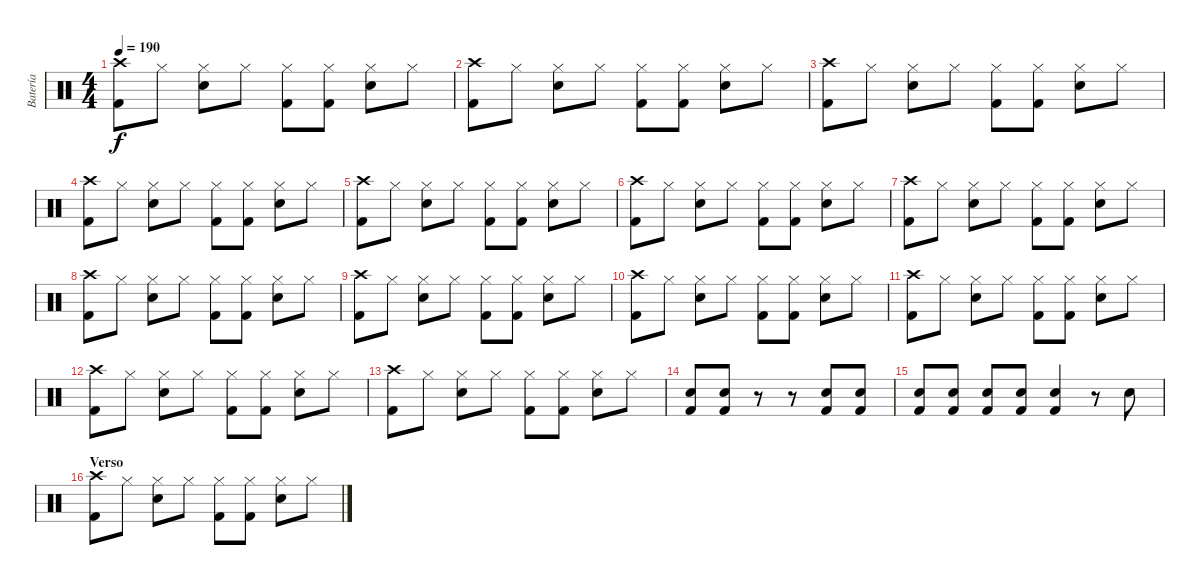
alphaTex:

\track ("Batería" "Batería") {instrument percussion}
\staff {score}
\articulation defaults
\ts (4 4)
\tempo 190
\clef neutral
\ks c
("Crash high (hit)" "Kick (hit) 2").8{dy f} "Hi-Hat (closed)".8 ("Hi-Hat (closed)" "Snare (hit) 2").8 "Hi-Hat (closed)".8 ("Hi-Hat (closed)" "Kick (hit) 2").8 ("Hi-Hat (closed)" "Kick (hit) 2").8 ("Hi-Hat (closed)" "Snare (hit) 2").8 "Hi-Hat (closed)".8 |
("Crash high (hit)" "Kick (hit) 2").8 "Hi-Hat (closed)".8 ("Hi-Hat (closed)" "Snare (hit) 2").8 "Hi-Hat (closed)".8 ("Hi-Hat (closed)" "Kick (hit) 2").8 ("Hi-Hat (closed)" "Kick (hit) 2").8 ("Hi-Hat (closed)" "Snare (hit) 2").8 "Hi-Hat (closed)".8 |
("Crash high (hit)" "Kick (hit) 2").8 "Hi-Hat (closed)".8 ("Hi-Hat (closed)" "Snare (hit) 2").8 "Hi-Hat (closed)".8 ("Hi-Hat (closed)" "Kick (hit) 2").8 ("Hi-Hat (closed)" "Kick (hit) 2").8 ("Hi-Hat (closed)" "Snare (hit) 2").8 "Hi-Hat (closed)".8 |
("Crash high (hit)" "Kick (hit) 2").8 "Hi-Hat (closed)".8 ("Hi-Hat (closed)" "Snare (hit) 2").8 "Hi-Hat (closed)".8 ("Hi-Hat (closed)" "Kick (hit) 2").8 ("Hi-Hat (closed)" "Kick (hit) 2").8 ("Hi-Hat (closed)" "Snare (hit) 2").8 "Hi-Hat (closed)".8 |
("Crash high (hit)" "Kick (hit) 2").8 "Hi-Hat (closed)".8 ("Hi-Hat (closed)" "Snare (hit) 2").8 "Hi-Hat (closed)".8 ("Hi-Hat (closed)" "Kick (hit) 2").8 ("Hi-Hat (closed)" "Kick (hit) 2").8 ("Hi-Hat (closed)" "Snare (hit) 2").8 "Hi-Hat (closed)".8 |
("Crash high (hit)" "Kick (hit) 2").8 "Hi-Hat (closed)".8 ("Hi-Hat (closed)" "Snare (hit) 2").8 "Hi-Hat (closed)".8 ("Hi-Hat (closed)" "Kick (hit) 2").8 ("Hi-Hat (closed)" "Kick (hit) 2").8 ("Hi-Hat (closed)" "Snare (hit) 2").8 "Hi-Hat (closed)".8 |
("Crash high (hit)" "Kick (hit) 2").8 "Hi-Hat (closed)".8 ("Hi-Hat (closed)" "Snare (hit) 2").8 "Hi-Hat (closed)".8 ("Hi-Hat (closed)" "Kick (hit) 2").8 ("Hi-Hat (closed)" "Kick (hit) 2").8 ("Hi-Hat (closed)" "Snare (hit) 2").8 "Hi-Hat (closed)".8 |
("Crash high (hit)" "Kick (hit) 2").8 "Hi-Hat (closed)".8 ("Hi-Hat (closed)" "Snare (hit) 2").8 "Hi-Hat (closed)".8 ("Hi-Hat (closed)" "Kick (hit) 2").8 ("Hi-Hat (closed)" "Kick (hit) 2").8 ("Hi-Hat (closed)" "Snare (hit) 2").8 "Hi-Hat (closed)".8 |
("Crash high (hit)" "Kick (hit) 2").8 "Hi-Hat (closed)".8 ("Hi-Hat (closed)" "Snare (hit) 2").8 "Hi-Hat (closed)".8 ("Hi-Hat (closed)" "Kick (hit) 2").8 ("Hi-Hat (closed)" "Kick (hit) 2").8 ("Hi-Hat (closed)" "Snare (hit) 2").8 "Hi-Hat (closed)".8 |
("Crash high (hit)" "Kick (hit) 2").8 "Hi-Hat (closed)".8 ("Hi-Hat (closed)" "Snare (hit) 2").8 "Hi-Hat (closed)".8 ("Hi-Hat (closed)" "Kick (hit) 2").8 ("Hi-Hat (closed)" "Kick (hit) 2").8 ("Hi-Hat (closed)" "Snare (hit) 2").8 "Hi-Hat (closed)".8 |
("Crash high (hit)" "Kick (hit) 2").8 "Hi-Hat (closed)".8 ("Hi-Hat (closed)" "Snare (hit) 2").8 "Hi-Hat (closed)".8 ("Hi-Hat (closed)" "Kick (hit) 2").8 ("Hi-Hat (closed)" "Kick (hit) 2").8 ("Hi-Hat (closed)" "Snare (hit) 2").8 "Hi-Hat (closed)".8 |
("Crash high (hit)" "Kick (hit) 2").8 "Hi-Hat (closed)".8 ("Hi-Hat (closed)" "Snare (hit) 2").8 "Hi-Hat (closed)".8 ("Hi-Hat (closed)" "Kick (hit) 2").8 ("Hi-Hat (closed)" "Kick (hit) 2").8 ("Hi-Hat (closed)" "Snare (hit) 2").8 "Hi-Hat (closed)".8 |
("Crash high (hit)" "Kick (hit) 2").8 "Hi-Hat (closed)".8 ("Hi-Hat (closed)" "Snare (hit) 2").8 "Hi-Hat (closed)".8 ("Hi-Hat (closed)" "Kick (hit) 2").8 ("Hi-Hat (closed)" "Kick (hit) 2").8 ("Hi-Hat (closed)" "Snare (hit) 2").8 "Hi-Hat (closed)".8 |
("Snare (hit) 2" "Kick (hit) 2").8 ("Snare (hit) 2" "Kick (hit) 2").8 r.8 r.8 ("Snare (hit) 2" "Kick (hit) 2").8 ("Snare (hit) 2" "Kick (hit) 2").8 |
("Snare (hit) 2" "Kick (hit) 2").8 ("Snare (hit) 2" "Kick (hit) 2").8 ("Snare (hit) 2" "Kick (hit) 2").8 ("Snare (hit) 2" "Kick (hit) 2").8 ("Snare (hit) 2" "Kick (hit) 2").4 r.8 "Snare (hit) 2".8 |
\section ("" "Verso")
("Crash high (hit)" "Kick (hit) 2").8 "Hi-Hat (closed)".8 ("Hi-Hat (closed)" "Snare (hit) 2").8 "Hi-Hat (closed)".8 ("Hi-Hat (closed)" "Kick (hit) 2").8 ("Hi-Hat (closed)" "Kick (hit) 2").8 ("Hi-Hat (closed)" "Snare (hit) 2").8 "Hi-Hat (closed)".8
